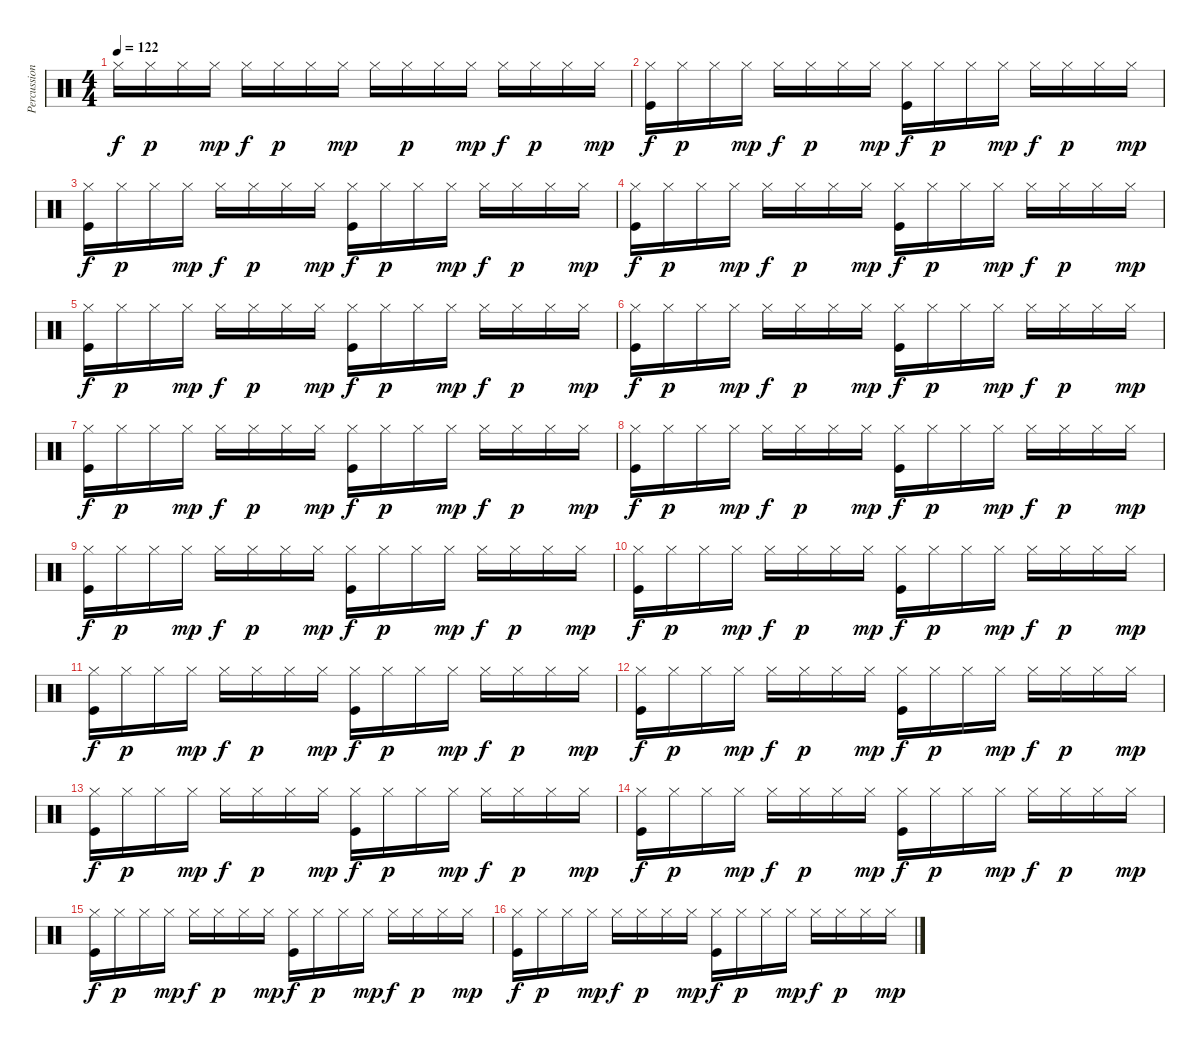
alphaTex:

\track ("Percussion" "Percussion") {instrument percussion}
\staff {score}
\articulation defaults
\ts (4 4)
\tempo 122
\clef neutral
\ks c "Hi-Hat (closed)".16{dy f} "Hi-Hat (closed)".16{dy p} "Hi-Hat (closed)".16 "Hi-Hat (closed)".16{dy mp} "Hi-Hat (closed)".16{dy f} "Hi-Hat (closed)".16{dy p} "Hi-Hat (closed)".16 "Hi-Hat (closed)".16{dy mp} "Hi-Hat (closed)".16 "Hi-Hat (closed)".16{dy p} "Hi-Hat (closed)".16 "Hi-Hat (closed)".16{dy mp} "Hi-Hat (closed)".16{dy f} "Hi-Hat (closed)".16{dy p} "Hi-Hat (closed)".16 "Hi-Hat (closed)".16{dy mp}
|
("Hi-Hat (closed)" "Kick (hit)").16{dy f} "Hi-Hat (closed)".16{dy p} "Hi-Hat (closed)".16 "Hi-Hat (closed)".16{dy mp} "Hi-Hat (closed)".16{dy f} "Hi-Hat (closed)".16{dy p} "Hi-Hat (closed)".16 "Hi-Hat (closed)".16{dy mp} ("Hi-Hat (closed)" "Kick (hit)").16{dy f} "Hi-Hat (closed)".16{dy p} "Hi-Hat (closed)".16 "Hi-Hat (closed)".16{dy mp} "Hi-Hat (closed)".16{dy f} "Hi-Hat (closed)".16{dy p} "Hi-Hat (closed)".16 "Hi-Hat (closed)".16{dy mp} |
("Hi-Hat (closed)" "Kick (hit)").16{dy f} "Hi-Hat (closed)".16{dy p} "Hi-Hat (closed)".16 "Hi-Hat (closed)".16{dy mp} "Hi-Hat (closed)".16{dy f} "Hi-Hat (closed)".16{dy p} "Hi-Hat (closed)".16 "Hi-Hat (closed)".16{dy mp} ("Hi-Hat (closed)" "Kick (hit)").16{dy f} "Hi-Hat (closed)".16{dy p} "Hi-Hat (closed)".16 "Hi-Hat (closed)".16{dy mp} "Hi-Hat (closed)".16{dy f} "Hi-Hat (closed)".16{dy p} "Hi-Hat (closed)".16 "Hi-Hat (closed)".16{dy mp} |
("Hi-Hat (closed)" "Kick (hit)").16{dy f} "Hi-Hat (closed)".16{dy p} "Hi-Hat (closed)".16 "Hi-Hat (closed)".16{dy mp} "Hi-Hat (closed)".16{dy f} "Hi-Hat (closed)".16{dy p} "Hi-Hat (closed)".16 "Hi-Hat (closed)".16{dy mp} ("Hi-Hat (closed)" "Kick (hit)").16{dy f} "Hi-Hat (closed)".16{dy p} "Hi-Hat (closed)".16 "Hi-Hat (closed)".16{dy mp} "Hi-Hat (closed)".16{dy f} "Hi-Hat (closed)".16{dy p} "Hi-Hat (closed)".16 "Hi-Hat (closed)".16{dy mp} |
("Hi-Hat (closed)" "Kick (hit)").16{dy f} "Hi-Hat (closed)".16{dy p} "Hi-Hat (closed)".16 "Hi-Hat (closed)".16{dy mp} "Hi-Hat (closed)".16{dy f} "Hi-Hat (closed)".16{dy p} "Hi-Hat (closed)".16 "Hi-Hat (closed)".16{dy mp} ("Hi-Hat (closed)" "Kick (hit)").16{dy f} "Hi-Hat (closed)".16{dy p} "Hi-Hat (closed)".16 "Hi-Hat (closed)".16{dy mp} "Hi-Hat (closed)".16{dy f} "Hi-Hat (closed)".16{dy p} "Hi-Hat (closed)".16 "Hi-Hat (closed)".16{dy mp} |
("Hi-Hat (closed)" "Kick (hit)").16{dy f} "Hi-Hat (closed)".16{dy p} "Hi-Hat (closed)".16 "Hi-Hat (closed)".16{dy mp} "Hi-Hat (closed)".16{dy f} "Hi-Hat (closed)".16{dy p} "Hi-Hat (closed)".16 "Hi-Hat (closed)".16{dy mp} ("Hi-Hat (closed)" "Kick (hit)").16{dy f} "Hi-Hat (closed)".16{dy p} "Hi-Hat (closed)".16 "Hi-Hat (closed)".16{dy mp} "Hi-Hat (closed)".16{dy f} "Hi-Hat (closed)".16{dy p} "Hi-Hat (closed)".16 "Hi-Hat (closed)".16{dy mp} |
("Hi-Hat (closed)" "Kick (hit)").16{dy f} "Hi-Hat (closed)".16{dy p} "Hi-Hat (closed)".16 "Hi-Hat (closed)".16{dy mp} "Hi-Hat (closed)".16{dy f} "Hi-Hat (closed)".16{dy p} "Hi-Hat (closed)".16 "Hi-Hat (closed)".16{dy mp} ("Hi-Hat (closed)" "Kick (hit)").16{dy f} "Hi-Hat (closed)".16{dy p} "Hi-Hat (closed)".16 "Hi-Hat (closed)".16{dy mp} "Hi-Hat (closed)".16{dy f} "Hi-Hat (closed)".16{dy p} "Hi-Hat (closed)".16 "Hi-Hat (closed)".16{dy mp} |
("Hi-Hat (closed)" "Kick (hit)").16{dy f} "Hi-Hat (closed)".16{dy p} "Hi-Hat (closed)".16 "Hi-Hat (closed)".16{dy mp} "Hi-Hat (closed)".16{dy f} "Hi-Hat (closed)".16{dy p} "Hi-Hat (closed)".16 "Hi-Hat (closed)".16{dy mp} ("Hi-Hat (closed)" "Kick (hit)").16{dy f} "Hi-Hat (closed)".16{dy p} "Hi-Hat (closed)".16 "Hi-Hat (closed)".16{dy mp} "Hi-Hat (closed)".16{dy f} "Hi-Hat (closed)".16{dy p} "Hi-Hat (closed)".16 "Hi-Hat (closed)".16{dy mp} |
("Hi-Hat (closed)" "Kick (hit)").16{dy f} "Hi-Hat (closed)".16{dy p} "Hi-Hat (closed)".16 "Hi-Hat (closed)".16{dy mp} "Hi-Hat (closed)".16{dy f} "Hi-Hat (closed)".16{dy p} "Hi-Hat (closed)".16 "Hi-Hat (closed)".16{dy mp} ("Hi-Hat (closed)" "Kick (hit)").16{dy f} "Hi-Hat (closed)".16{dy p} "Hi-Hat (closed)".16 "Hi-Hat (closed)".16{dy mp} "Hi-Hat (closed)".16{dy f} "Hi-Hat (closed)".16{dy p} "Hi-Hat (closed)".16 "Hi-Hat (closed)".16{dy mp} |
("Hi-Hat (closed)" "Kick (hit)").16{dy f} "Hi-Hat (closed)".16{dy p} "Hi-Hat (closed)".16 "Hi-Hat (closed)".16{dy mp} "Hi-Hat (closed)".16{dy f} "Hi-Hat (closed)".16{dy p} "Hi-Hat (closed)".16 "Hi-Hat (closed)".16{dy mp} ("Hi-Hat (closed)" "Kick (hit)").16{dy f} "Hi-Hat (closed)".16{dy p} "Hi-Hat (closed)".16 "Hi-Hat (closed)".16{dy mp} "Hi-Hat (closed)".16{dy f} "Hi-Hat (closed)".16{dy p} "Hi-Hat (closed)".16 "Hi-Hat (closed)".16{dy mp} |
("Hi-Hat (closed)" "Kick (hit)").16{dy f} "Hi-Hat (closed)".16{dy p} "Hi-Hat (closed)".16 "Hi-Hat (closed)".16{dy mp} "Hi-Hat (closed)".16{dy f} "Hi-Hat (closed)".16{dy p} "Hi-Hat (closed)".16 "Hi-Hat (closed)".16{dy mp} ("Hi-Hat (closed)" "Kick (hit)").16{dy f} "Hi-Hat (closed)".16{dy p} "Hi-Hat (closed)".16 "Hi-Hat (closed)".16{dy mp} "Hi-Hat (closed)".16{dy f} "Hi-Hat (closed)".16{dy p} "Hi-Hat (closed)".16 "Hi-Hat (closed)".16{dy mp} |
("Hi-Hat (closed)" "Kick (hit)").16{dy f} "Hi-Hat (closed)".16{dy p} "Hi-Hat (closed)".16 "Hi-Hat (closed)".16{dy mp} "Hi-Hat (closed)".16{dy f} "Hi-Hat (closed)".16{dy p} "Hi-Hat (closed)".16 "Hi-Hat (closed)".16{dy mp} ("Hi-Hat (closed)" "Kick (hit)").16{dy f} "Hi-Hat (closed)".16{dy p} "Hi-Hat (closed)".16 "Hi-Hat (closed)".16{dy mp} "Hi-Hat (closed)".16{dy f} "Hi-Hat (closed)".16{dy p} "Hi-Hat (closed)".16 "Hi-Hat (closed)".16{dy mp} |
("Hi-Hat (closed)" "Kick (hit)").16{dy f} "Hi-Hat (closed)".16{dy p} "Hi-Hat (closed)".16 "Hi-Hat (closed)".16{dy mp} "Hi-Hat (closed)".16{dy f} "Hi-Hat (closed)".16{dy p} "Hi-Hat (closed)".16 "Hi-Hat (closed)".16{dy mp} ("Hi-Hat (closed)" "Kick (hit)").16{dy f} "Hi-Hat (closed)".16{dy p} "Hi-Hat (closed)".16 "Hi-Hat (closed)".16{dy mp} "Hi-Hat (closed)".16{dy f} "Hi-Hat (closed)".16{dy p} "Hi-Hat (closed)".16 "Hi-Hat (closed)".16{dy mp} |
("Hi-Hat (closed)" "Kick (hit)").16{dy f} "Hi-Hat (closed)".16{dy p} "Hi-Hat (closed)".16 "Hi-Hat (closed)".16{dy mp} "Hi-Hat (closed)".16{dy f} "Hi-Hat (closed)".16{dy p} "Hi-Hat (closed)".16 "Hi-Hat (closed)".16{dy mp} ("Hi-Hat (closed)" "Kick (hit)").16{dy f} "Hi-Hat (closed)".16{dy p} "Hi-Hat (closed)".16 "Hi-Hat (closed)".16{dy mp} "Hi-Hat (closed)".16{dy f} "Hi-Hat (closed)".16{dy p} "Hi-Hat (closed)".16 "Hi-Hat (closed)".16{dy mp} |
("Hi-Hat (closed)" "Kick (hit)").16{dy f} "Hi-Hat (closed)".16{dy p} "Hi-Hat (closed)".16 "Hi-Hat (closed)".16{dy mp} "Hi-Hat (closed)".16{dy f} "Hi-Hat (closed)".16{dy p} "Hi-Hat (closed)".16 "Hi-Hat (closed)".16{dy mp} ("Hi-Hat (closed)" "Kick (hit)").16{dy f} "Hi-Hat (closed)".16{dy p} "Hi-Hat (closed)".16 "Hi-Hat (closed)".16{dy mp} "Hi-Hat (closed)".16{dy f} "Hi-Hat (closed)".16{dy p} "Hi-Hat (closed)".16 "Hi-Hat (closed)".16{dy mp} |
("Hi-Hat (closed)" "Kick (hit)").16{dy f} "Hi-Hat (closed)".16{dy p} "Hi-Hat (closed)".16 "Hi-Hat (closed)".16{dy mp} "Hi-Hat (closed)".16{dy f} "Hi-Hat (closed)".16{dy p} "Hi-Hat (closed)".16 "Hi-Hat (closed)".16{dy mp} ("Hi-Hat (closed)" "Kick (hit)").16{dy f} "Hi-Hat (closed)".16{dy p} "Hi-Hat (closed)".16 "Hi-Hat (closed)".16{dy mp} "Hi-Hat (closed)".16{dy f} "Hi-Hat (closed)".16{dy p} "Hi-Hat (closed)".16 "Hi-Hat (closed)".16{dy mp}
